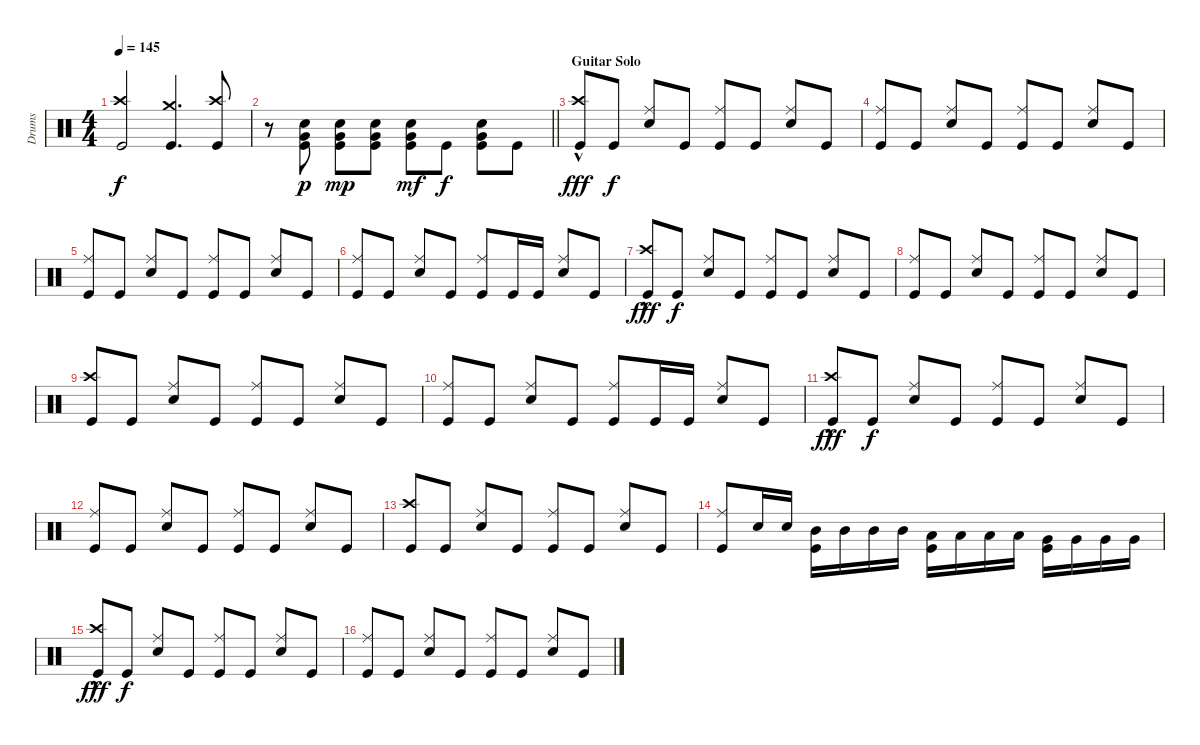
\track ("Drums" "Drums") {instrument percussion}
\staff {score}
\articulation defaults
\ts (4 4)
\tempo 145
\clef neutral
\ks c
("Crash high (hit)" "Kick (hit)").2{dy f beam Up} ("Crash medium (hit)" "Kick (hit)").4{d beam Up} ("Crash high (hit)" "Kick (hit)").8{beam Up} |
\barLineRight lightlight
r.8 ("Snare (hit) 2" "Very Low Tom (hit)" "Kick (hit)").8{dy p beam Down} ("Snare (hit) 2" "Very Low Tom (hit)" "Kick (hit)").8{dy mp beam Down} ("Snare (hit) 2" "Very Low Tom (hit)" "Kick (hit)").8{beam Down} ("Snare (hit) 2" "Very Low Tom (hit)" "Kick (hit)").8{dy mf beam Down} "Kick (hit)".8{dy f beam Down} ("Snare (hit) 2" "Very Low Tom (hit)" "Kick (hit)").8{beam Down} "Kick (hit)".8{beam Down} |
\section ("" "Guitar Solo")
("Crash high (hit)"{hac} "Kick (hit)").8{dy fff beam Up} "Kick (hit)".8{dy f beam Up} ("Ride (middle)" "Snare (hit) 2").8{beam Up} "Kick (hit)".8{beam Up} ("Ride (middle)" "Kick (hit)").8{beam Up} "Kick (hit)".8{beam Up} ("Ride (middle)" "Snare (hit) 2").8{beam Up} "Kick (hit)".8{beam Up} |
("Ride (middle)" "Kick (hit)").8{beam Up} "Kick (hit)".8{beam Up} ("Ride (middle)" "Snare (hit) 2").8{beam Up} "Kick (hit)".8{beam Up} ("Ride (middle)" "Kick (hit)").8{beam Up} "Kick (hit)".8{beam Up} ("Ride (middle)" "Snare (hit) 2").8{beam Up} "Kick (hit)".8{beam Up} |
("Ride (middle)" "Kick (hit)").8{beam Up} "Kick (hit)".8{beam Up} ("Ride (middle)" "Snare (hit) 2").8{beam Up} "Kick (hit)".8{beam Up} ("Ride (middle)" "Kick (hit)").8{beam Up} "Kick (hit)".8{beam Up} ("Ride (middle)" "Snare (hit) 2").8{beam Up} "Kick (hit)".8{beam Up} |
("Ride (middle)" "Kick (hit)").8{beam Up} "Kick (hit)".8{beam Up} ("Ride (middle)" "Snare (hit) 2").8{beam Up} "Kick (hit)".8{beam Up} ("Ride (middle)" "Kick (hit)").8{beam Up} "Kick (hit)".16{beam Up} "Kick (hit)".16{beam Up} ("Ride (middle)" "Snare (hit) 2").8{beam Up} "Kick (hit)".8{beam Up} |
("Crash high (hit)"{hac} "Kick (hit)").8{dy fff beam Up} "Kick (hit)".8{dy f beam Up} ("Ride (middle)" "Snare (hit) 2").8{beam Up} "Kick (hit)".8{beam Up} ("Ride (middle)" "Kick (hit)").8{beam Up} "Kick (hit)".8{beam Up} ("Ride (middle)" "Snare (hit) 2").8{beam Up} "Kick (hit)".8{beam Up} |
("Ride (middle)" "Kick (hit)").8{beam Up} "Kick (hit)".8{beam Up} ("Ride (middle)" "Snare (hit) 2").8{beam Up} "Kick (hit)".8{beam Up} ("Ride (middle)" "Kick (hit)").8{beam Up} "Kick (hit)".8{beam Up} ("Ride (middle)" "Snare (hit) 2").8{beam Up} "Kick (hit)".8{beam Up} |
("Crash high (hit)" "Kick (hit)").8{beam Up} "Kick (hit)".8{beam Up} ("Ride (middle)" "Snare (hit) 2").8{beam Up} "Kick (hit)".8{beam Up} ("Ride (middle)" "Kick (hit)").8{beam Up} "Kick (hit)".8{beam Up} ("Ride (middle)" "Snare (hit) 2").8{beam Up} "Kick (hit)".8{beam Up} |
("Ride (middle)" "Kick (hit)").8{beam Up} "Kick (hit)".8{beam Up} ("Ride (middle)" "Snare (hit) 2").8{beam Up} "Kick (hit)".8{beam Up} ("Ride (middle)" "Kick (hit)").8{beam Up} "Kick (hit)".16{beam Up} "Kick (hit)".16{beam Up} ("Ride (middle)" "Snare (hit) 2").8{beam Up} "Kick (hit)".8{beam Up} |
("Crash high (hit)"{hac} "Kick (hit)").8{dy fff beam Up} "Kick (hit)".8{dy f beam Up} ("Ride (middle)" "Snare (hit) 2").8{beam Up} "Kick (hit)".8{beam Up} ("Ride (middle)" "Kick (hit)").8{beam Up} "Kick (hit)".8{beam Up} ("Ride (middle)" "Snare (hit) 2").8{beam Up} "Kick (hit)".8{beam Up} |
("Ride (middle)" "Kick (hit)").8{beam Up} "Kick (hit)".8{beam Up} ("Ride (middle)" "Snare (hit) 2").8{beam Up} "Kick (hit)".8{beam Up} ("Ride (middle)" "Kick (hit)").8{beam Up} "Kick (hit)".8{beam Up} ("Ride (middle)" "Snare (hit) 2").8{beam Up} "Kick (hit)".8{beam Up} |
("Crash high (hit)" "Kick (hit)").8{beam Up} "Kick (hit)".8{beam Up} ("Ride (middle)" "Snare (hit) 2").8{beam Up} "Kick (hit)".8{beam Up} ("Ride (middle)" "Kick (hit)").8{beam Up} "Kick (hit)".8{beam Up} ("Ride (middle)" "Snare (hit) 2").8{beam Up} "Kick (hit)".8{beam Up} |
("Ride (middle)" "Kick (hit)").8{beam Up} "Snare (hit) 2".16{beam Up} "Snare (hit) 2".16{beam Up} ("Mid Tom (hit)" "Kick (hit)").16{beam Down} "Mid Tom (hit)".16{beam Down} "Mid Tom (hit)".16{beam Down} "Mid Tom (hit)".16{beam Down} ("Low Tom (hit)" "Kick (hit)").16{beam Down} "Low Tom (hit)".16{beam Down} "Low Tom (hit)".16{beam Down} "Low Tom (hit)".16{beam Down} ("Very Low Tom (hit)" "Kick (hit)").16{beam Down} "Very Low Tom (hit)".16{beam Down} "Very Low Tom (hit)".16{beam Down} "Very Low Tom (hit)".16{beam Down} |
("Crash high (hit)"{hac} "Kick (hit)").8{dy fff beam Up} "Kick (hit)".8{dy f beam Up} ("Ride (middle)" "Snare (hit) 2").8{beam Up} "Kick (hit)".8{beam Up} ("Ride (middle)" "Kick (hit)").8{beam Up} "Kick (hit)".8{beam Up} ("Ride (middle)" "Snare (hit) 2").8{beam Up} "Kick (hit)".8{beam Up} |
("Ride (middle)" "Kick (hit)").8{beam Up} "Kick (hit)".8{beam Up} ("Ride (middle)" "Snare (hit) 2").8{beam Up} "Kick (hit)".8{beam Up} ("Ride (middle)" "Kick (hit)").8{beam Up} "Kick (hit)".8{beam Up} ("Ride (middle)" "Snare (hit) 2").8{beam Up} "Kick (hit)".8{beam Up}
